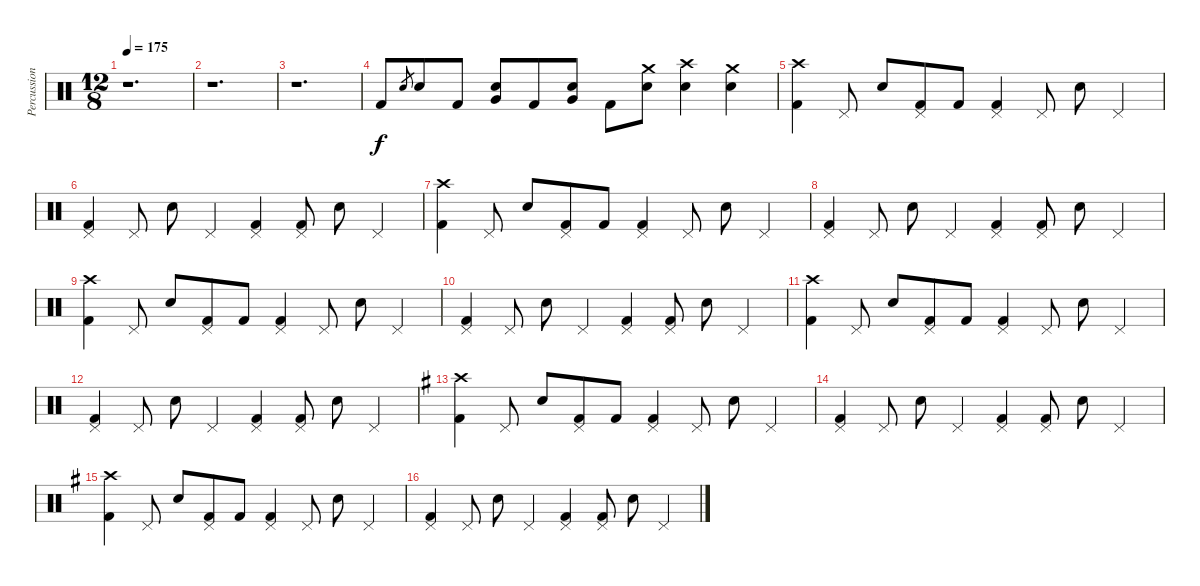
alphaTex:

\track ("Percussion" "Percussion") {instrument percussion}
\staff {score}
\articulation defaults
\ts (12 8)
\tempo 175
\clef neutral
\ks c
r.1{d dy f} |
r.1{d} |
r.1{d} |
"Kick (hit) 2".8 "Snare (hit) 2".8{gr} "Snare (hit) 2".8 "Kick (hit) 2".8 ("Snare (hit) 2" "Very Low Tom (hit)").8 "Kick (hit) 2".8 ("Snare (hit) 2" "Very Low Tom (hit)").8 "Kick (hit) 2".8 ("Snare (hit) 2" "Crash medium (hit)").8 ("Snare (hit) 2" "Crash high (hit)").4 ("Snare (hit) 2" "Crash medium (hit)").4 |
("Kick (hit) 2" "Crash high (hit)").4 "Pedal Hi-Hat (hit)".8 "Snare (hit) 2".8 ("Kick (hit) 2" "Pedal Hi-Hat (hit)").8 "Kick (hit) 2".8 ("Kick (hit) 2" "Pedal Hi-Hat (hit)").4 "Pedal Hi-Hat (hit)".8 "Snare (hit) 2".8 "Pedal Hi-Hat (hit)".4 |
("Kick (hit) 2" "Pedal Hi-Hat (hit)").4 "Pedal Hi-Hat (hit)".8 "Snare (hit) 2".8 "Pedal Hi-Hat (hit)".4 ("Kick (hit) 2" "Pedal Hi-Hat (hit)").4 ("Kick (hit) 2" "Pedal Hi-Hat (hit)").8 "Snare (hit) 2".8 "Pedal Hi-Hat (hit)".4 |
("Kick (hit) 2" "Crash high (hit)").4 "Pedal Hi-Hat (hit)".8 "Snare (hit) 2".8 ("Kick (hit) 2" "Pedal Hi-Hat (hit)").8 "Kick (hit) 2".8 ("Kick (hit) 2" "Pedal Hi-Hat (hit)").4 "Pedal Hi-Hat (hit)".8 "Snare (hit) 2".8 "Pedal Hi-Hat (hit)".4 |
("Kick (hit) 2" "Pedal Hi-Hat (hit)").4 "Pedal Hi-Hat (hit)".8 "Snare (hit) 2".8 "Pedal Hi-Hat (hit)".4 ("Kick (hit) 2" "Pedal Hi-Hat (hit)").4 ("Kick (hit) 2" "Pedal Hi-Hat (hit)").8 "Snare (hit) 2".8 "Pedal Hi-Hat (hit)".4 |
("Kick (hit) 2" "Crash high (hit)").4 "Pedal Hi-Hat (hit)".8 "Snare (hit) 2".8 ("Kick (hit) 2" "Pedal Hi-Hat (hit)").8 "Kick (hit) 2".8 ("Kick (hit) 2" "Pedal Hi-Hat (hit)").4 "Pedal Hi-Hat (hit)".8 "Snare (hit) 2".8 "Pedal Hi-Hat (hit)".4 |
("Kick (hit) 2" "Pedal Hi-Hat (hit)").4 "Pedal Hi-Hat (hit)".8 "Snare (hit) 2".8 "Pedal Hi-Hat (hit)".4 ("Kick (hit) 2" "Pedal Hi-Hat (hit)").4 ("Kick (hit) 2" "Pedal Hi-Hat (hit)").8 "Snare (hit) 2".8 "Pedal Hi-Hat (hit)".4 |
("Kick (hit) 2" "Crash high (hit)").4 "Pedal Hi-Hat (hit)".8 "Snare (hit) 2".8 ("Kick (hit) 2" "Pedal Hi-Hat (hit)").8 "Kick (hit) 2".8 ("Kick (hit) 2" "Pedal Hi-Hat (hit)").4 "Pedal Hi-Hat (hit)".8 "Snare (hit) 2".8 "Pedal Hi-Hat (hit)".4 |
("Kick (hit) 2" "Pedal Hi-Hat (hit)").4 "Pedal Hi-Hat (hit)".8 "Snare (hit) 2".8 "Pedal Hi-Hat (hit)".4 ("Kick (hit) 2" "Pedal Hi-Hat (hit)").4 ("Kick (hit) 2" "Pedal Hi-Hat (hit)").8 "Snare (hit) 2".8 "Pedal Hi-Hat (hit)".4 |
\ks g
("Kick (hit) 2" "Crash high (hit)").4 "Pedal Hi-Hat (hit)".8 "Snare (hit) 2".8 ("Kick (hit) 2" "Pedal Hi-Hat (hit)").8 "Kick (hit) 2".8 ("Kick (hit) 2" "Pedal Hi-Hat (hit)").4 "Pedal Hi-Hat (hit)".8 "Snare (hit) 2".8 "Pedal Hi-Hat (hit)".4 |
("Kick (hit) 2" "Pedal Hi-Hat (hit)").4 "Pedal Hi-Hat (hit)".8 "Snare (hit) 2".8 "Pedal Hi-Hat (hit)".4 ("Kick (hit) 2" "Pedal Hi-Hat (hit)").4 ("Kick (hit) 2" "Pedal Hi-Hat (hit)").8 "Snare (hit) 2".8 "Pedal Hi-Hat (hit)".4 |
("Kick (hit) 2" "Crash high (hit)").4 "Pedal Hi-Hat (hit)".8 "Snare (hit) 2".8 ("Kick (hit) 2" "Pedal Hi-Hat (hit)").8 "Kick (hit) 2".8 ("Kick (hit) 2" "Pedal Hi-Hat (hit)").4 "Pedal Hi-Hat (hit)".8 "Snare (hit) 2".8 "Pedal Hi-Hat (hit)".4 |
("Kick (hit) 2" "Pedal Hi-Hat (hit)").4 "Pedal Hi-Hat (hit)".8 "Snare (hit) 2".8 "Pedal Hi-Hat (hit)".4 ("Kick (hit) 2" "Pedal Hi-Hat (hit)").4 ("Kick (hit) 2" "Pedal Hi-Hat (hit)").8 "Snare (hit) 2".8 "Pedal Hi-Hat (hit)".4
